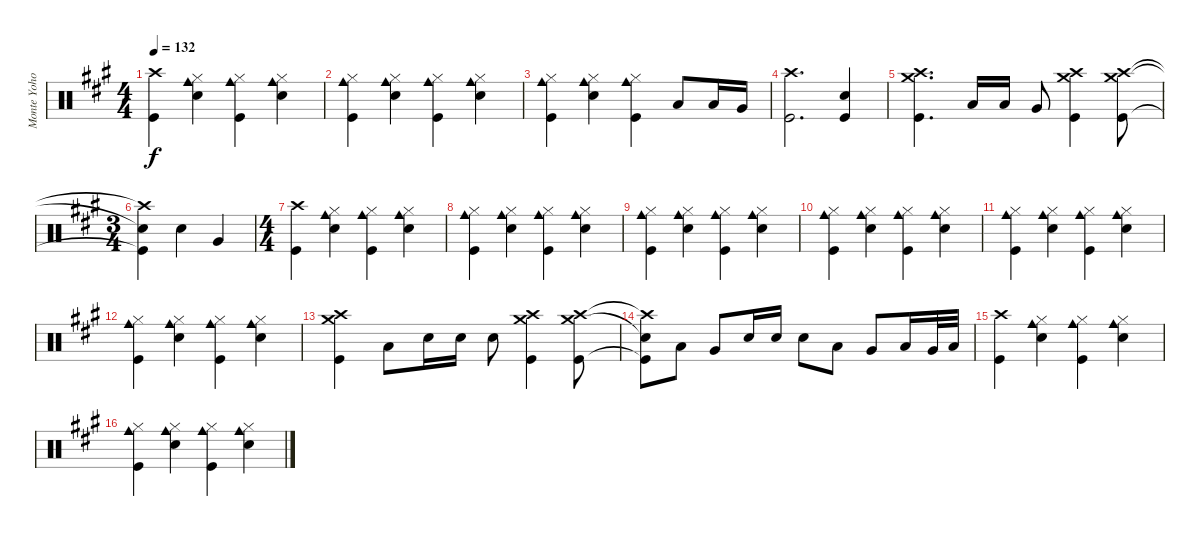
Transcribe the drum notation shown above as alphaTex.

\track ("Monte Yoho Drums" "Monte Yoho") {instrument percussion}
\staff {score}
\articulation defaults
\ts (4 4)
\tempo 132
\clef neutral
\ks a
("Crash high (hit)" "Kick (hit)").4{dy f} ("Hi-Hat (closed)" "Cowbell medium (hit)" "Snare (hit) 2").4 ("Hi-Hat (closed)" "Cowbell medium (hit)" "Kick (hit)").4 ("Hi-Hat (closed)" "Cowbell medium (hit)" "Snare (hit) 2").4 |
("Hi-Hat (closed)" "Cowbell medium (hit)" "Kick (hit)").4 ("Hi-Hat (closed)" "Cowbell medium (hit)" "Snare (hit) 2").4 ("Hi-Hat (closed)" "Cowbell medium (hit)" "Kick (hit)").4 ("Hi-Hat (closed)" "Cowbell medium (hit)" "Snare (hit) 2").4 |
("Hi-Hat (closed)" "Cowbell medium (hit)" "Kick (hit)").4 ("Hi-Hat (closed)" "Cowbell medium (hit)" "Snare (hit) 2").4 ("Hi-Hat (closed)" "Cowbell medium (hit)" "Kick (hit)").4 "Low Tom (hit)".8 "Low Tom (hit)".16 "Very Low Tom (hit)".16 |
("Crash high (hit)" "Kick (hit)").2{d} ("Snare (hit) 2" "Kick (hit)").4 |
("Crash high (hit)" "Crash medium (hit)" "Kick (hit)").4{d} "Low Tom (hit)".16 "Low Tom (hit)".16 "Very Low Tom (hit)".8 ("Crash high (hit)" "Crash medium (hit)" "Kick (hit)").4 ("Crash high (hit)" "Crash medium (hit)" "Kick (hit)").8 |
\ts (3 4)
("Crash high (hit)"{t} "Snare (hit)"{t} "Kick (hit)"{t}).4 "Snare (hit) 2".4 "Very Low Tom (hit)".4 |
\ts (4 4)
("Crash high (hit)" "Kick (hit)").4 ("Hi-Hat (closed)" "Cowbell medium (hit)" "Snare (hit) 2").4 ("Hi-Hat (closed)" "Cowbell medium (hit)" "Kick (hit)").4 ("Hi-Hat (closed)" "Cowbell medium (hit)" "Snare (hit) 2").4 |
("Hi-Hat (closed)" "Cowbell medium (hit)" "Kick (hit)").4 ("Hi-Hat (closed)" "Cowbell medium (hit)" "Snare (hit) 2").4 ("Hi-Hat (closed)" "Cowbell medium (hit)" "Kick (hit)").4 ("Hi-Hat (closed)" "Cowbell medium (hit)" "Snare (hit) 2").4 |
("Hi-Hat (closed)" "Cowbell medium (hit)" "Kick (hit)").4 ("Hi-Hat (closed)" "Cowbell medium (hit)" "Snare (hit) 2").4 ("Hi-Hat (closed)" "Cowbell medium (hit)" "Kick (hit)").4 ("Hi-Hat (closed)" "Cowbell medium (hit)" "Snare (hit) 2").4 |
("Hi-Hat (closed)" "Cowbell medium (hit)" "Kick (hit)").4 ("Hi-Hat (closed)" "Cowbell medium (hit)" "Snare (hit) 2").4 ("Hi-Hat (closed)" "Cowbell medium (hit)" "Kick (hit)").4 ("Hi-Hat (closed)" "Cowbell medium (hit)" "Snare (hit) 2").4 |
("Hi-Hat (closed)" "Cowbell medium (hit)" "Kick (hit)").4 ("Hi-Hat (closed)" "Cowbell medium (hit)" "Snare (hit) 2").4 ("Hi-Hat (closed)" "Cowbell medium (hit)" "Kick (hit)").4 ("Hi-Hat (closed)" "Cowbell medium (hit)" "Snare (hit) 2").4 |
("Hi-Hat (closed)" "Cowbell medium (hit)" "Kick (hit)").4 ("Hi-Hat (closed)" "Cowbell medium (hit)" "Snare (hit) 2").4 ("Hi-Hat (closed)" "Cowbell medium (hit)" "Kick (hit)").4 ("Hi-Hat (closed)" "Cowbell medium (hit)" "Snare (hit) 2").4 |
("Crash high (hit)" "Crash medium (hit)" "Kick (hit)").4 "Low Tom (hit)".8 "Snare (hit) 2".16 "Snare (hit) 2".16 "Snare (hit) 2".8 ("Crash high (hit)" "Crash medium (hit)" "Kick (hit)").4 ("Crash high (hit)" "Crash medium (hit)" "Kick (hit)").8 |
("Crash high (hit)"{t} "Snare (hit)"{t} "Kick (hit)"{t}).8 "Low Tom (hit)".8 "Very Low Tom (hit)".8 "Snare (hit) 2".16 "Snare (hit) 2".16 "Snare (hit) 2".8 "Low Tom (hit)".8 "Very Low Tom (hit)".8 "Low Tom (hit)".16 "Very Low Tom (hit)".32 "Low Floor Tom (hit)".32 |
("Crash high (hit)" "Kick (hit)").4 ("Hi-Hat (closed)" "Cowbell medium (hit)" "Snare (hit) 2").4 ("Hi-Hat (closed)" "Cowbell medium (hit)" "Kick (hit)").4 ("Hi-Hat (closed)" "Cowbell medium (hit)" "Snare (hit) 2").4 |
("Hi-Hat (closed)" "Cowbell medium (hit)" "Kick (hit)").4 ("Hi-Hat (closed)" "Cowbell medium (hit)" "Snare (hit) 2").4 ("Hi-Hat (closed)" "Cowbell medium (hit)" "Kick (hit)").4 ("Hi-Hat (closed)" "Cowbell medium (hit)" "Snare (hit) 2").4
